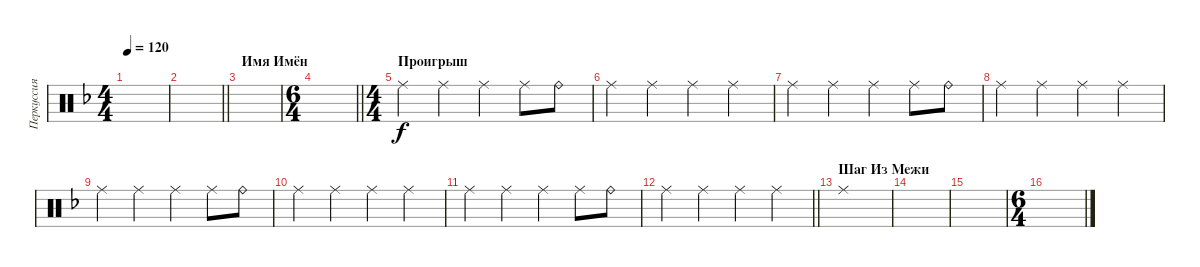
\track ("Перкуссия" "Перкуссия") {instrument percussion}
\staff {score}
\articulation defaults
\ts (4 4)
\tempo 120
\clef neutral
\ks dminor
|
\barLineRight lightlight
|
\section ("" "Имя Имён")
|
\ts (6 4)
\barLineRight lightlight
|
\ts (4 4)
\section ("" "Проигрыш")
"Ride (middle)".4 "Ride (middle)".4 "Ride (middle)".4 "Ride (middle)".8 "Ride (bell)".8 |
"Ride (middle)".4 "Ride (middle)".4 "Ride (middle)".4 "Ride (middle)".4 |
"Ride (middle)".4 "Ride (middle)".4 "Ride (middle)".4 "Ride (middle)".8 "Ride (bell)".8 |
"Ride (middle)".4 "Ride (middle)".4 "Ride (middle)".4 "Ride (middle)".4 |
"Ride (middle)".4 "Ride (middle)".4 "Ride (middle)".4 "Ride (middle)".8 "Ride (bell)".8 |
"Ride (middle)".4 "Ride (middle)".4 "Ride (middle)".4 "Ride (middle)".4 |
"Ride (middle)".4 "Ride (middle)".4 "Ride (middle)".4 "Ride (middle)".8 "Ride (bell)".8 |
\barLineRight lightlight "Ride (middle)".4 "Ride (middle)".4 "Ride (middle)".4 "Ride (middle)".4
|
\section ("" "Шаг Из Межи")
"Ride (middle)".1 |
|
|
\ts (6 4)
